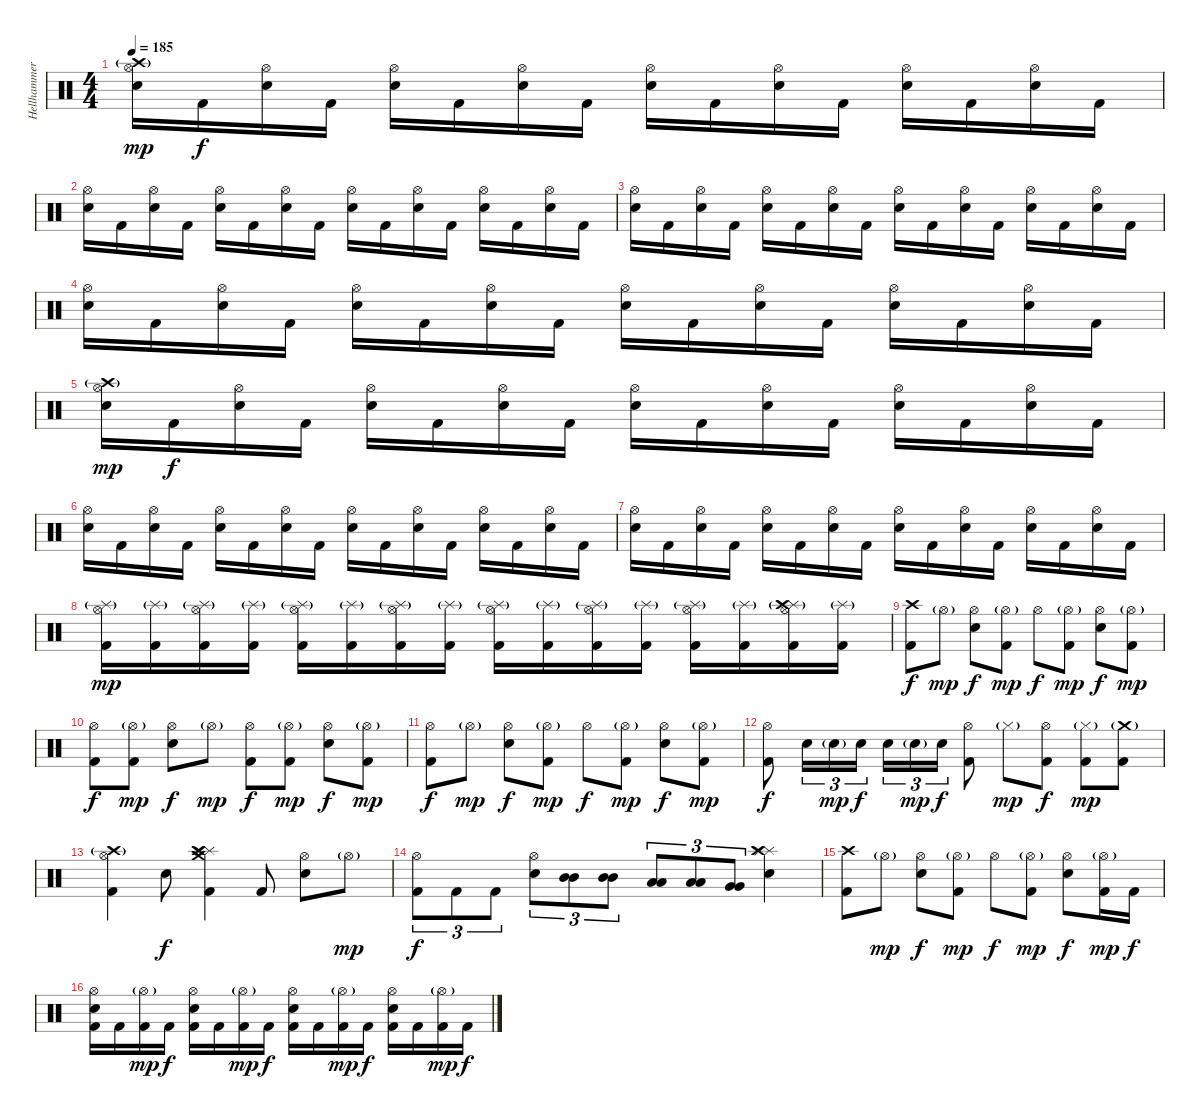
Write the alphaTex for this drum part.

\track ("Hellhammer" "Hellhammer") {instrument percussion}
\staff {score}
\articulation defaults
\ts (4 4)
\tempo 185
\clef neutral
\ks c
("Electric Snare (hit)" "Hi-Hat (open)" "Crash high (hit)"{g}).16{dy mp} "Kick (hit) 2".16{dy f} ("Electric Snare (hit)" "Hi-Hat (open)").16 "Kick (hit) 2".16 ("Electric Snare (hit)" "Hi-Hat (open)").16 "Kick (hit) 2".16 ("Electric Snare (hit)" "Hi-Hat (open)").16 "Kick (hit) 2".16 ("Electric Snare (hit)" "Hi-Hat (open)").16 "Kick (hit) 2".16 ("Electric Snare (hit)" "Hi-Hat (open)").16 "Kick (hit) 2".16 ("Electric Snare (hit)" "Hi-Hat (open)").16 "Kick (hit) 2".16 ("Electric Snare (hit)" "Hi-Hat (open)").16 "Kick (hit) 2".16 |
("Electric Snare (hit)" "Hi-Hat (open)").16 "Kick (hit) 2".16 ("Electric Snare (hit)" "Hi-Hat (open)").16 "Kick (hit) 2".16 ("Electric Snare (hit)" "Hi-Hat (open)").16 "Kick (hit) 2".16 ("Electric Snare (hit)" "Hi-Hat (open)").16 "Kick (hit) 2".16 ("Electric Snare (hit)" "Hi-Hat (open)").16 "Kick (hit) 2".16 ("Electric Snare (hit)" "Hi-Hat (open)").16 "Kick (hit) 2".16 ("Electric Snare (hit)" "Hi-Hat (open)").16 "Kick (hit) 2".16 ("Electric Snare (hit)" "Hi-Hat (open)").16 "Kick (hit) 2".16 |
("Electric Snare (hit)" "Hi-Hat (open)").16 "Kick (hit) 2".16 ("Electric Snare (hit)" "Hi-Hat (open)").16 "Kick (hit) 2".16 ("Electric Snare (hit)" "Hi-Hat (open)").16 "Kick (hit) 2".16 ("Electric Snare (hit)" "Hi-Hat (open)").16 "Kick (hit) 2".16 ("Electric Snare (hit)" "Hi-Hat (open)").16 "Kick (hit) 2".16 ("Electric Snare (hit)" "Hi-Hat (open)").16 "Kick (hit) 2".16 ("Electric Snare (hit)" "Hi-Hat (open)").16 "Kick (hit) 2".16 ("Electric Snare (hit)" "Hi-Hat (open)").16 "Kick (hit) 2".16 |
("Electric Snare (hit)" "Hi-Hat (open)").16 "Kick (hit) 2".16 ("Electric Snare (hit)" "Hi-Hat (open)").16 "Kick (hit) 2".16 ("Electric Snare (hit)" "Hi-Hat (open)").16 "Kick (hit) 2".16 ("Electric Snare (hit)" "Hi-Hat (open)").16 "Kick (hit) 2".16 ("Electric Snare (hit)" "Hi-Hat (open)").16 "Kick (hit) 2".16 ("Electric Snare (hit)" "Hi-Hat (open)").16 "Kick (hit) 2".16 ("Electric Snare (hit)" "Hi-Hat (open)").16 "Kick (hit) 2".16 ("Electric Snare (hit)" "Hi-Hat (open)").16 "Kick (hit) 2".16 |
("Electric Snare (hit)" "Hi-Hat (open)" "Crash high (hit)"{g}).16{dy mp} "Kick (hit) 2".16{dy f} ("Electric Snare (hit)" "Hi-Hat (open)").16 "Kick (hit) 2".16 ("Electric Snare (hit)" "Hi-Hat (open)").16 "Kick (hit) 2".16 ("Electric Snare (hit)" "Hi-Hat (open)").16 "Kick (hit) 2".16 ("Electric Snare (hit)" "Hi-Hat (open)").16 "Kick (hit) 2".16 ("Electric Snare (hit)" "Hi-Hat (open)").16 "Kick (hit) 2".16 ("Electric Snare (hit)" "Hi-Hat (open)").16 "Kick (hit) 2".16 ("Electric Snare (hit)" "Hi-Hat (open)").16 "Kick (hit) 2".16 |
("Electric Snare (hit)" "Hi-Hat (open)").16 "Kick (hit) 2".16 ("Electric Snare (hit)" "Hi-Hat (open)").16 "Kick (hit) 2".16 ("Electric Snare (hit)" "Hi-Hat (open)").16 "Kick (hit) 2".16 ("Electric Snare (hit)" "Hi-Hat (open)").16 "Kick (hit) 2".16 ("Electric Snare (hit)" "Hi-Hat (open)").16 "Kick (hit) 2".16 ("Electric Snare (hit)" "Hi-Hat (open)").16 "Kick (hit) 2".16 ("Electric Snare (hit)" "Hi-Hat (open)").16 "Kick (hit) 2".16 ("Electric Snare (hit)" "Hi-Hat (open)").16 "Kick (hit) 2".16 |
("Electric Snare (hit)" "Hi-Hat (open)").16 "Kick (hit) 2".16 ("Electric Snare (hit)" "Hi-Hat (open)").16 "Kick (hit) 2".16 ("Electric Snare (hit)" "Hi-Hat (open)").16 "Kick (hit) 2".16 ("Electric Snare (hit)" "Hi-Hat (open)").16 "Kick (hit) 2".16 ("Electric Snare (hit)" "Hi-Hat (open)").16 "Kick (hit) 2".16 ("Electric Snare (hit)" "Hi-Hat (open)").16 "Kick (hit) 2".16 ("Electric Snare (hit)" "Hi-Hat (open)").16 "Kick (hit) 2".16 ("Electric Snare (hit)" "Hi-Hat (open)").16 "Kick (hit) 2".16 |
("Kick (hit) 2" "Splash (hit)"{g} "Hi-Hat (open)").16{dy mp} ("Kick (hit) 2" "Splash (hit)"{g}).16 ("Kick (hit) 2" "Splash (hit)"{g} "Hi-Hat (open)").16 ("Kick (hit) 2" "Splash (hit)"{g}).16 ("Kick (hit) 2" "Splash (hit)"{g} "Hi-Hat (open)").16 ("Kick (hit) 2" "Splash (hit)"{g}).16 ("Kick (hit) 2" "Splash (hit)"{g} "Hi-Hat (open)").16 ("Kick (hit) 2" "Splash (hit)"{g}).16 ("Kick (hit) 2" "Splash (hit)"{g} "Hi-Hat (open)").16 ("Kick (hit) 2" "Splash (hit)"{g}).16 ("Kick (hit) 2" "Splash (hit)"{g} "Hi-Hat (open)").16 ("Kick (hit) 2" "Splash (hit)"{g}).16 ("Kick (hit) 2" "Splash (hit)"{g} "Hi-Hat (open)").16 ("Kick (hit) 2" "Splash (hit)"{g}).16 ("Kick (hit) 2" "Splash (hit)"{g} "Hi-Hat (open)" "Crash high (hit)").16 ("Kick (hit) 2" "Splash (hit)"{g}).16 |
("Kick (hit) 2" "Crash high (hit)").8{dy f} "Hi-Hat (open)"{g}.8{dy mp} ("Electric Snare (hit)" "Hi-Hat (open)").8{dy f} ("Kick (hit) 2" "Hi-Hat (open)"{g}).8{dy mp} "Hi-Hat (open)".8{dy f} ("Kick (hit) 2" "Hi-Hat (open)"{g}).8{dy mp} ("Electric Snare (hit)" "Hi-Hat (open)").8{dy f} ("Kick (hit) 2" "Hi-Hat (open)"{g}).8{dy mp} |
("Kick (hit) 2" "Hi-Hat (open)").8{dy f} ("Kick (hit) 2" "Hi-Hat (open)"{g}).8{dy mp} ("Electric Snare (hit)" "Hi-Hat (open)").8{dy f} "Hi-Hat (open)"{g}.8{dy mp} ("Kick (hit) 2" "Hi-Hat (open)").8{dy f} ("Kick (hit) 2" "Hi-Hat (open)"{g}).8{dy mp} ("Electric Snare (hit)" "Hi-Hat (open)").8{dy f} ("Kick (hit) 2" "Hi-Hat (open)"{g}).8{dy mp} |
("Kick (hit) 2" "Hi-Hat (open)").8{dy f} "Hi-Hat (open)"{g}.8{dy mp} ("Electric Snare (hit)" "Hi-Hat (open)").8{dy f} ("Kick (hit) 2" "Hi-Hat (open)"{g}).8{dy mp} "Hi-Hat (open)".8{dy f} ("Kick (hit) 2" "Hi-Hat (open)"{g}).8{dy mp} ("Electric Snare (hit)" "Hi-Hat (open)").8{dy f} ("Kick (hit) 2" "Hi-Hat (open)"{g}).8{dy mp} |
("Kick (hit) 2" "Hi-Hat (open)").8{dy f} "Electric Snare (hit)".16{tu (3 2)} "Electric Snare (hit)"{g}.16{tu (3 2) dy mp} "Electric Snare (hit)".16{tu (3 2) dy f} "Electric Snare (hit)".16{tu (3 2)} "Electric Snare (hit)"{g}.16{tu (3 2) dy mp} "Electric Snare (hit)".16{tu (3 2) dy f} ("Kick (hit) 2" "Hi-Hat (open)").8 "Hi-Hat (closed)"{g}.8{dy mp} ("Kick (hit) 2" "Hi-Hat (open)").8{dy f} ("Kick (hit) 2" "Hi-Hat (closed)"{g}).8{dy mp} ("Kick (hit) 2" "Crash medium (hit)"{g}).8 |
("Kick (hit) 2" "Hi-Hat (open)" "Crash high (hit)"{g}).4 "Electric Snare (hit)".8{dy f} ("Kick (hit) 2" "Splash (hit)" "Splash (hit)" "Crash medium (hit)" "Crash high (hit)").4 "Kick (hit) 2".8 ("Electric Snare (hit)" "Hi-Hat (open)").8 "Hi-Hat (open)"{g}.8{dy mp} |
("Kick (hit) 2" "Hi-Hat (open)").8{tu (3 2) dy f} "Kick (hit) 2".8{tu (3 2)} "Kick (hit) 2".8{tu (3 2)} ("Electric Snare (hit)" "Hi-Hat (open)").8{tu (3 2)} ("Mid Tom (hit)" "Mid Tom (hit)").8{tu (3 2)} ("Mid Tom (hit)" "Mid Tom (hit)").8{tu (3 2)} ("Low Tom (hit)" "Low Tom (hit)").8{tu (3 2)} ("Low Tom (hit)" "Low Tom (hit)").8{tu (3 2)} ("Very Low Tom (hit)" "Very Low Tom (hit)").8{tu (3 2)} ("Electric Snare (hit)" "Splash (hit)" "Splash (hit)" "Crash high (hit)").4 |
("Kick (hit) 2" "Crash high (hit)").8 "Hi-Hat (open)"{g}.8{dy mp} ("Electric Snare (hit)" "Hi-Hat (open)").8{dy f} ("Kick (hit) 2" "Hi-Hat (open)"{g}).8{dy mp} "Hi-Hat (open)".8{dy f} ("Kick (hit) 2" "Hi-Hat (open)"{g}).8{dy mp} ("Electric Snare (hit)" "Hi-Hat (open)").8{dy f} ("Kick (hit) 2" "Hi-Hat (open)"{g}).16{dy mp} "Kick (hit) 2".16{dy f} |
("Kick (hit) 2" "Electric Snare (hit)" "Hi-Hat (open)").16 "Kick (hit) 2".16 ("Kick (hit) 2" "Hi-Hat (open)"{g}).16{dy mp} "Kick (hit) 2".16{dy f} ("Kick (hit) 2" "Electric Snare (hit)" "Hi-Hat (open)").16 "Kick (hit) 2".16 ("Kick (hit) 2" "Hi-Hat (open)"{g}).16{dy mp} "Kick (hit) 2".16{dy f} ("Kick (hit) 2" "Electric Snare (hit)" "Hi-Hat (open)").16 "Kick (hit) 2".16 ("Kick (hit) 2" "Hi-Hat (open)"{g}).16{dy mp} "Kick (hit) 2".16{dy f} ("Kick (hit) 2" "Electric Snare (hit)" "Hi-Hat (open)").16 "Kick (hit) 2".16 ("Kick (hit) 2" "Hi-Hat (open)"{g}).16{dy mp} "Kick (hit) 2".16{dy f}
